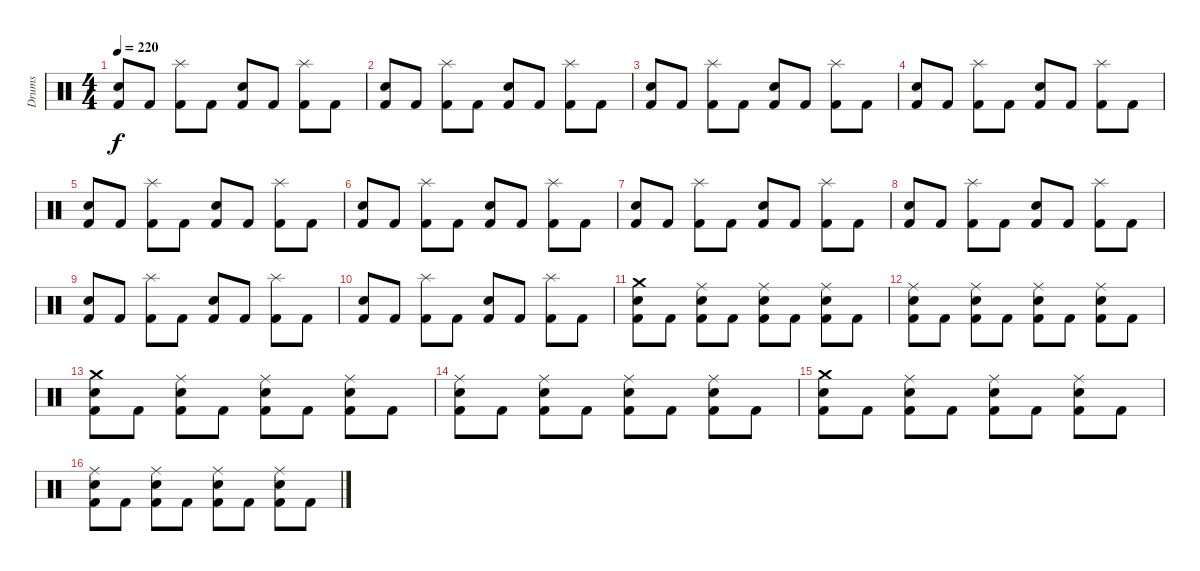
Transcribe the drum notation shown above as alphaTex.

\track ("Drums" "Drums") {instrument percussion}
\staff {score}
\articulation defaults
\ts (4 4)
\tempo 220
\clef neutral
\ks c
("Kick (hit) 2" "Snare (hit) 2").8{dy f} "Kick (hit) 2".8 ("Kick (hit) 2" "Splash (hit)").8 "Kick (hit) 2".8 ("Kick (hit) 2" "Snare (hit) 2").8 "Kick (hit) 2".8 ("Kick (hit) 2" "Splash (hit)").8 "Kick (hit) 2".8 |
("Kick (hit) 2" "Snare (hit) 2").8 "Kick (hit) 2".8 ("Kick (hit) 2" "Splash (hit)").8 "Kick (hit) 2".8 ("Kick (hit) 2" "Snare (hit) 2").8 "Kick (hit) 2".8 ("Kick (hit) 2" "Splash (hit)").8 "Kick (hit) 2".8 |
("Kick (hit) 2" "Snare (hit) 2").8 "Kick (hit) 2".8 ("Kick (hit) 2" "Splash (hit)").8 "Kick (hit) 2".8 ("Kick (hit) 2" "Snare (hit) 2").8 "Kick (hit) 2".8 ("Kick (hit) 2" "Splash (hit)").8 "Kick (hit) 2".8 |
("Kick (hit) 2" "Snare (hit) 2").8 "Kick (hit) 2".8 ("Kick (hit) 2" "Splash (hit)").8 "Kick (hit) 2".8 ("Kick (hit) 2" "Snare (hit) 2").8 "Kick (hit) 2".8 ("Kick (hit) 2" "Splash (hit)").8 "Kick (hit) 2".8 |
("Kick (hit) 2" "Snare (hit) 2").8 "Kick (hit) 2".8 ("Kick (hit) 2" "Splash (hit)").8 "Kick (hit) 2".8 ("Kick (hit) 2" "Snare (hit) 2").8 "Kick (hit) 2".8 ("Kick (hit) 2" "Splash (hit)").8 "Kick (hit) 2".8 |
("Kick (hit) 2" "Snare (hit) 2").8 "Kick (hit) 2".8 ("Kick (hit) 2" "Splash (hit)").8 "Kick (hit) 2".8 ("Kick (hit) 2" "Snare (hit) 2").8 "Kick (hit) 2".8 ("Kick (hit) 2" "Splash (hit)").8 "Kick (hit) 2".8 |
("Kick (hit) 2" "Snare (hit) 2").8 "Kick (hit) 2".8 ("Kick (hit) 2" "Splash (hit)").8 "Kick (hit) 2".8 ("Kick (hit) 2" "Snare (hit) 2").8 "Kick (hit) 2".8 ("Kick (hit) 2" "Splash (hit)").8 "Kick (hit) 2".8 |
("Kick (hit) 2" "Snare (hit) 2").8 "Kick (hit) 2".8 ("Kick (hit) 2" "Splash (hit)").8 "Kick (hit) 2".8 ("Kick (hit) 2" "Snare (hit) 2").8 "Kick (hit) 2".8 ("Kick (hit) 2" "Splash (hit)").8 "Kick (hit) 2".8 |
("Kick (hit) 2" "Snare (hit) 2").8 "Kick (hit) 2".8 ("Kick (hit) 2" "Splash (hit)").8 "Kick (hit) 2".8 ("Kick (hit) 2" "Snare (hit) 2").8 "Kick (hit) 2".8 ("Kick (hit) 2" "Splash (hit)").8 "Kick (hit) 2".8 |
("Kick (hit) 2" "Snare (hit) 2").8 "Kick (hit) 2".8 ("Kick (hit) 2" "Splash (hit)").8 "Kick (hit) 2".8 ("Kick (hit) 2" "Snare (hit) 2").8 "Kick (hit) 2".8 ("Kick (hit) 2" "Splash (hit)").8 "Kick (hit) 2".8 |
("Kick (hit) 2" "Snare (hit) 2" "Crash medium (hit)").8 "Kick (hit) 2".8 ("Kick (hit) 2" "Snare (hit) 2" "Ride (middle)").8 "Kick (hit) 2".8 ("Kick (hit) 2" "Snare (hit) 2" "Ride (middle)").8 "Kick (hit) 2".8 ("Kick (hit) 2" "Snare (hit) 2" "Ride (middle)").8 "Kick (hit) 2".8 |
("Kick (hit) 2" "Snare (hit) 2" "Ride (middle)").8 "Kick (hit) 2".8 ("Kick (hit) 2" "Snare (hit) 2" "Ride (middle)").8 "Kick (hit) 2".8 ("Kick (hit) 2" "Snare (hit) 2" "Ride (middle)").8 "Kick (hit) 2".8 ("Kick (hit) 2" "Snare (hit) 2" "Ride (middle)").8 "Kick (hit) 2".8 |
("Kick (hit) 2" "Snare (hit) 2" "Crash medium (hit)").8 "Kick (hit) 2".8 ("Kick (hit) 2" "Snare (hit) 2" "Ride (middle)").8 "Kick (hit) 2".8 ("Kick (hit) 2" "Snare (hit) 2" "Ride (middle)").8 "Kick (hit) 2".8 ("Kick (hit) 2" "Snare (hit) 2" "Ride (middle)").8 "Kick (hit) 2".8 |
("Kick (hit) 2" "Snare (hit) 2" "Ride (middle)").8 "Kick (hit) 2".8 ("Kick (hit) 2" "Snare (hit) 2" "Ride (middle)").8 "Kick (hit) 2".8 ("Kick (hit) 2" "Snare (hit) 2" "Ride (middle)").8 "Kick (hit) 2".8 ("Kick (hit) 2" "Snare (hit) 2" "Ride (middle)").8 "Kick (hit) 2".8 |
("Kick (hit) 2" "Snare (hit) 2" "Crash medium (hit)").8 "Kick (hit) 2".8 ("Kick (hit) 2" "Snare (hit) 2" "Ride (middle)").8 "Kick (hit) 2".8 ("Kick (hit) 2" "Snare (hit) 2" "Ride (middle)").8 "Kick (hit) 2".8 ("Kick (hit) 2" "Snare (hit) 2" "Ride (middle)").8 "Kick (hit) 2".8 |
("Kick (hit) 2" "Snare (hit) 2" "Ride (middle)").8 "Kick (hit) 2".8 ("Kick (hit) 2" "Snare (hit) 2" "Ride (middle)").8 "Kick (hit) 2".8 ("Kick (hit) 2" "Snare (hit) 2" "Ride (middle)").8 "Kick (hit) 2".8 ("Kick (hit) 2" "Snare (hit) 2" "Ride (middle)").8 "Kick (hit) 2".8
